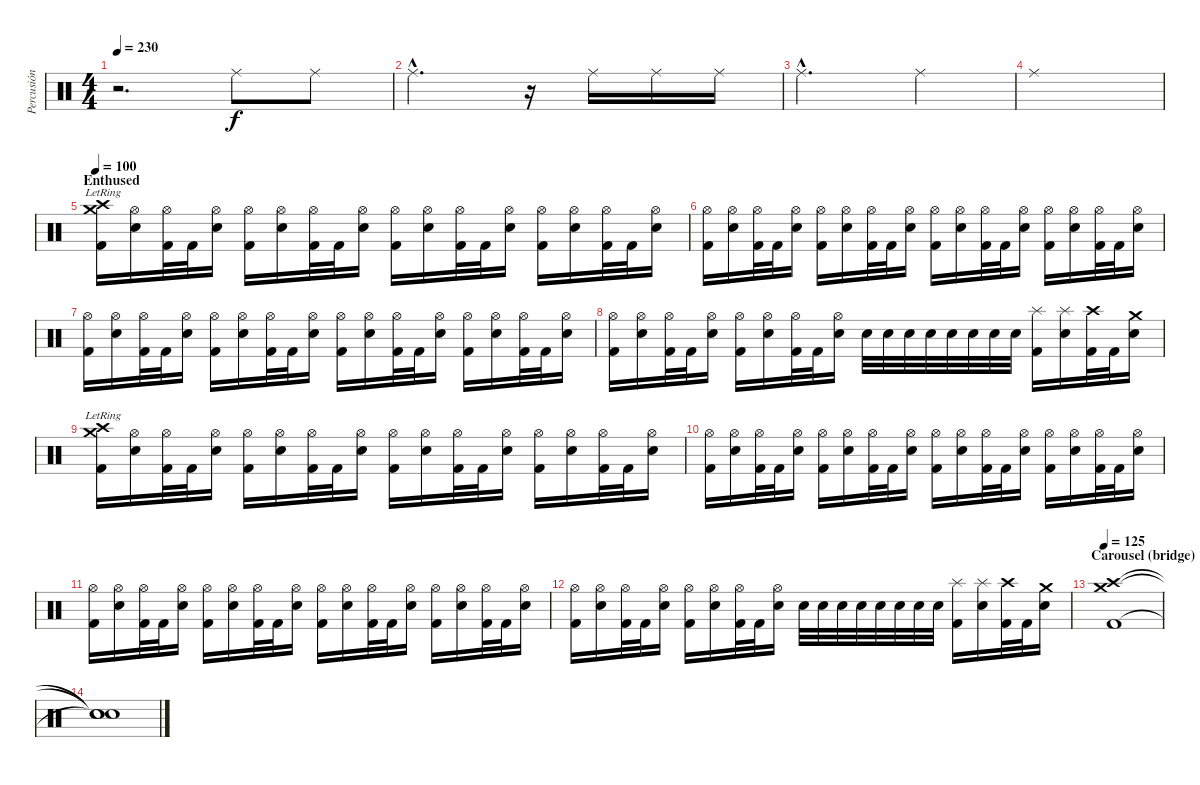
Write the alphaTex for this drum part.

\track ("Percusión" "Percusión") {instrument percussion}
\staff {score}
\articulation defaults
\ts (4 4)
\tempo 230
\clef neutral
\ks c
r.2{d dy f} "Ride (middle)".8 "Ride (middle)".8 |
"Ride (middle)"{hac}.2{d} r.16 "Ride (middle)".16 "Ride (middle)".16 "Ride (middle)".16 |
"Ride (middle)"{hac}.2{d} "Ride (middle)".4 |
"Ride (middle)".1 |
\section ("" "Enthused")
\tempo 100
("Crash high (hit)" "Crash medium (hit)"{lr} "Kick (hit) 2").16 ("Hi-Hat (open)" "Electric Snare (hit)").16 ("Hi-Hat (open)" "Kick (hit) 2").32 "Kick (hit) 2".32 ("Hi-Hat (open)" "Electric Snare (hit)").16 ("Hi-Hat (open)" "Kick (hit) 2").16 ("Hi-Hat (open)" "Electric Snare (hit)").16 ("Hi-Hat (open)" "Kick (hit) 2").32 "Kick (hit) 2".32 ("Hi-Hat (open)" "Electric Snare (hit)").16 ("Hi-Hat (open)" "Kick (hit) 2").16 ("Hi-Hat (open)" "Electric Snare (hit)").16 ("Hi-Hat (open)" "Kick (hit) 2").32 "Kick (hit) 2".32 ("Hi-Hat (open)" "Electric Snare (hit)").16 ("Hi-Hat (open)" "Kick (hit) 2").16 ("Hi-Hat (open)" "Electric Snare (hit)").16 ("Hi-Hat (open)" "Kick (hit) 2").32 "Kick (hit) 2".32 ("Hi-Hat (open)" "Electric Snare (hit)").16 |
("Hi-Hat (open)" "Kick (hit) 2").16 ("Hi-Hat (open)" "Electric Snare (hit)").16 ("Hi-Hat (open)" "Kick (hit) 2").32 "Kick (hit) 2".32 ("Hi-Hat (open)" "Electric Snare (hit)").16 ("Hi-Hat (open)" "Kick (hit) 2").16 ("Hi-Hat (open)" "Electric Snare (hit)").16 ("Hi-Hat (open)" "Kick (hit) 2").32 "Kick (hit) 2".32 ("Hi-Hat (open)" "Electric Snare (hit)").16 ("Hi-Hat (open)" "Kick (hit) 2").16 ("Hi-Hat (open)" "Electric Snare (hit)").16 ("Hi-Hat (open)" "Kick (hit) 2").32 "Kick (hit) 2".32 ("Hi-Hat (open)" "Electric Snare (hit)").16 ("Hi-Hat (open)" "Kick (hit) 2").16 ("Hi-Hat (open)" "Electric Snare (hit)").16 ("Hi-Hat (open)" "Kick (hit) 2").32 "Kick (hit) 2".32 ("Hi-Hat (open)" "Electric Snare (hit)").16 |
("Hi-Hat (open)" "Kick (hit) 2").16 ("Hi-Hat (open)" "Electric Snare (hit)").16 ("Hi-Hat (open)" "Kick (hit) 2").32 "Kick (hit) 2".32 ("Hi-Hat (open)" "Electric Snare (hit)").16 ("Hi-Hat (open)" "Kick (hit) 2").16 ("Hi-Hat (open)" "Electric Snare (hit)").16 ("Hi-Hat (open)" "Kick (hit) 2").32 "Kick (hit) 2".32 ("Hi-Hat (open)" "Electric Snare (hit)").16 ("Hi-Hat (open)" "Kick (hit) 2").16 ("Hi-Hat (open)" "Electric Snare (hit)").16 ("Hi-Hat (open)" "Kick (hit) 2").32 "Kick (hit) 2".32 ("Hi-Hat (open)" "Electric Snare (hit)").16 ("Hi-Hat (open)" "Kick (hit) 2").16 ("Hi-Hat (open)" "Electric Snare (hit)").16 ("Hi-Hat (open)" "Kick (hit) 2").32 "Kick (hit) 2".32 ("Hi-Hat (open)" "Electric Snare (hit)").16 |
("Hi-Hat (open)" "Kick (hit) 2").16 ("Hi-Hat (open)" "Electric Snare (hit)").16 ("Hi-Hat (open)" "Kick (hit) 2").32 "Kick (hit) 2".32 ("Hi-Hat (open)" "Electric Snare (hit)").16 ("Hi-Hat (open)" "Kick (hit) 2").16 ("Hi-Hat (open)" "Electric Snare (hit)").16 ("Hi-Hat (open)" "Kick (hit) 2").32 "Kick (hit) 2".32 ("Hi-Hat (open)" "Electric Snare (hit)").16 "Electric Snare (hit)".32 "Electric Snare (hit)".32 "Electric Snare (hit)".32 "Electric Snare (hit)".32 "Electric Snare (hit)".32 "Electric Snare (hit)".32 "Electric Snare (hit)".32 "Electric Snare (hit)".32 ("Splash (hit)" "Kick (hit) 2").16 ("Splash (hit)" "Electric Snare (hit)").16 ("Crash high (hit)" "Kick (hit) 2").32 "Kick (hit) 2".32 ("Crash medium (hit)" "Electric Snare (hit)").16 |
("Crash high (hit)" "Crash medium (hit)"{lr} "Kick (hit) 2").16 ("Hi-Hat (open)" "Electric Snare (hit)").16 ("Hi-Hat (open)" "Kick (hit) 2").32 "Kick (hit) 2".32 ("Hi-Hat (open)" "Electric Snare (hit)").16 ("Hi-Hat (open)" "Kick (hit) 2").16 ("Hi-Hat (open)" "Electric Snare (hit)").16 ("Hi-Hat (open)" "Kick (hit) 2").32 "Kick (hit) 2".32 ("Hi-Hat (open)" "Electric Snare (hit)").16 ("Hi-Hat (open)" "Kick (hit) 2").16 ("Hi-Hat (open)" "Electric Snare (hit)").16 ("Hi-Hat (open)" "Kick (hit) 2").32 "Kick (hit) 2".32 ("Hi-Hat (open)" "Electric Snare (hit)").16 ("Hi-Hat (open)" "Kick (hit) 2").16 ("Hi-Hat (open)" "Electric Snare (hit)").16 ("Hi-Hat (open)" "Kick (hit) 2").32 "Kick (hit) 2".32 ("Hi-Hat (open)" "Electric Snare (hit)").16 |
("Hi-Hat (open)" "Kick (hit) 2").16 ("Hi-Hat (open)" "Electric Snare (hit)").16 ("Hi-Hat (open)" "Kick (hit) 2").32 "Kick (hit) 2".32 ("Hi-Hat (open)" "Electric Snare (hit)").16 ("Hi-Hat (open)" "Kick (hit) 2").16 ("Hi-Hat (open)" "Electric Snare (hit)").16 ("Hi-Hat (open)" "Kick (hit) 2").32 "Kick (hit) 2".32 ("Hi-Hat (open)" "Electric Snare (hit)").16 ("Hi-Hat (open)" "Kick (hit) 2").16 ("Hi-Hat (open)" "Electric Snare (hit)").16 ("Hi-Hat (open)" "Kick (hit) 2").32 "Kick (hit) 2".32 ("Hi-Hat (open)" "Electric Snare (hit)").16 ("Hi-Hat (open)" "Kick (hit) 2").16 ("Hi-Hat (open)" "Electric Snare (hit)").16 ("Hi-Hat (open)" "Kick (hit) 2").32 "Kick (hit) 2".32 ("Hi-Hat (open)" "Electric Snare (hit)").16 |
("Hi-Hat (open)" "Kick (hit) 2").16 ("Hi-Hat (open)" "Electric Snare (hit)").16 ("Hi-Hat (open)" "Kick (hit) 2").32 "Kick (hit) 2".32 ("Hi-Hat (open)" "Electric Snare (hit)").16 ("Hi-Hat (open)" "Kick (hit) 2").16 ("Hi-Hat (open)" "Electric Snare (hit)").16 ("Hi-Hat (open)" "Kick (hit) 2").32 "Kick (hit) 2".32 ("Hi-Hat (open)" "Electric Snare (hit)").16 ("Hi-Hat (open)" "Kick (hit) 2").16 ("Hi-Hat (open)" "Electric Snare (hit)").16 ("Hi-Hat (open)" "Kick (hit) 2").32 "Kick (hit) 2".32 ("Hi-Hat (open)" "Electric Snare (hit)").16 ("Hi-Hat (open)" "Kick (hit) 2").16 ("Hi-Hat (open)" "Electric Snare (hit)").16 ("Hi-Hat (open)" "Kick (hit) 2").32 "Kick (hit) 2".32 ("Hi-Hat (open)" "Electric Snare (hit)").16 |
("Hi-Hat (open)" "Kick (hit) 2").16 ("Hi-Hat (open)" "Electric Snare (hit)").16 ("Hi-Hat (open)" "Kick (hit) 2").32 "Kick (hit) 2".32 ("Hi-Hat (open)" "Electric Snare (hit)").16 ("Hi-Hat (open)" "Kick (hit) 2").16 ("Hi-Hat (open)" "Electric Snare (hit)").16 ("Hi-Hat (open)" "Kick (hit) 2").32 "Kick (hit) 2".32 ("Hi-Hat (open)" "Electric Snare (hit)").16 "Electric Snare (hit)".32 "Electric Snare (hit)".32 "Electric Snare (hit)".32 "Electric Snare (hit)".32 "Electric Snare (hit)".32 "Electric Snare (hit)".32 "Electric Snare (hit)".32 "Electric Snare (hit)".32 ("Splash (hit)" "Kick (hit) 2").16 ("Splash (hit)" "Electric Snare (hit)").16 ("Crash high (hit)" "Kick (hit) 2").32 "Kick (hit) 2".32 ("Crash medium (hit)" "Electric Snare (hit)").16 |
\section ("" "Carousel (bridge)")
\tempo 125
("Crash high (hit)" "Crash medium (hit)" "Kick (hit) 2").1 |
("Snare (hit)"{t} "Snare (hit)"{t} "Snare (hit)"{t}).1
